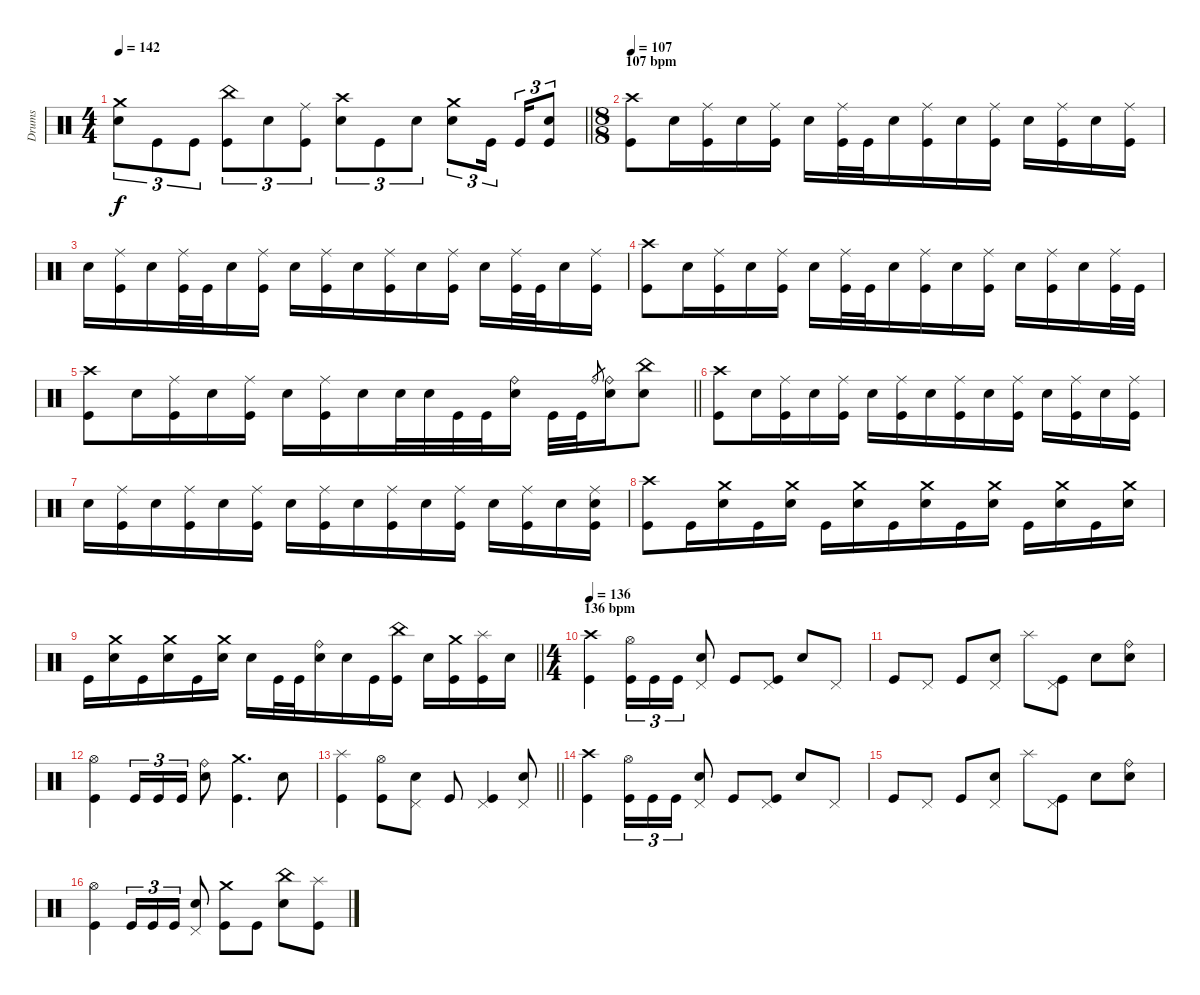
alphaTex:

\track ("Drums" "Drums") {instrument percussion}
\staff
\articulation defaults
\ts (4 4)
\tempo 142
\clef neutral
\barLineRight lightlight
\ks c
("Crash medium (hit)" "Electric Snare (hit)").8{tu (3 2) dy f} "Kick (hit)".8{tu (3 2)} "Kick (hit)".8{tu (3 2)} ("China (hit)" "Kick (hit)").8{tu (3 2)} "Electric Snare (hit)".8{tu (3 2)} ("Ride (middle)" "Kick (hit)").8{tu (3 2)} ("Crash high (hit)" "Electric Snare (hit)").8{tu (3 2)} "Kick (hit)".8{tu (3 2)} "Electric Snare (hit)".8{tu (3 2)} ("Crash medium (hit)" "Electric Snare (hit)").8{tu (3 2)} "Kick (hit)".16{tu (3 2) beam splitsecondary} "Kick (hit)".16{tu (3 2)} ("Electric Snare (hit)" "Kick (hit)").8{tu (3 2)} |
\ts (8 8)
\section ("" "107 bpm")
\tempo 107
("Crash high (hit)" "Kick (hit)").8 "Electric Snare (hit)".16 ("Ride (middle)" "Kick (hit)").16 "Electric Snare (hit)".16 ("Ride (middle)" "Kick (hit)").16 "Electric Snare (hit)".16 ("Ride (middle)" "Kick (hit)").32 "Kick (hit)".32 "Electric Snare (hit)".16 ("Ride (middle)" "Kick (hit)").16 "Electric Snare (hit)".16 ("Ride (middle)" "Kick (hit)").16 "Electric Snare (hit)".16 ("Ride (middle)" "Kick (hit)").16 "Electric Snare (hit)".16 ("Ride (middle)" "Kick (hit)").16 |
"Electric Snare (hit)".16 ("Ride (middle)" "Kick (hit)").16 "Electric Snare (hit)".16 ("Ride (middle)" "Kick (hit)").32 "Kick (hit)".32 "Electric Snare (hit)".16 ("Ride (middle)" "Kick (hit)").16 "Electric Snare (hit)".16 ("Ride (middle)" "Kick (hit)").16 "Electric Snare (hit)".16 ("Ride (middle)" "Kick (hit)").16 "Electric Snare (hit)".16 ("Ride (middle)" "Kick (hit)").16 "Electric Snare (hit)".16 ("Ride (middle)" "Kick (hit)").32 "Kick (hit)".32 "Electric Snare (hit)".16 ("Ride (middle)" "Kick (hit)").16 |
("Crash high (hit)" "Kick (hit)").8 "Electric Snare (hit)".16 ("Ride (middle)" "Kick (hit)").16 "Electric Snare (hit)".16 ("Ride (middle)" "Kick (hit)").16 "Electric Snare (hit)".16 ("Ride (middle)" "Kick (hit)").32 "Kick (hit)".32 "Electric Snare (hit)".16 ("Ride (middle)" "Kick (hit)").16 "Electric Snare (hit)".16 ("Ride (middle)" "Kick (hit)").16 "Electric Snare (hit)".16 ("Ride (middle)" "Kick (hit)").16 "Electric Snare (hit)".16 ("Ride (middle)" "Kick (hit)").32 "Kick (hit)".32 |
\barLineRight lightlight
("Crash high (hit)" "Kick (hit)").8 "Electric Snare (hit)".16 ("Ride (middle)" "Kick (hit)").16 "Electric Snare (hit)".16 ("Ride (middle)" "Kick (hit)").16 "Electric Snare (hit)".16 ("Ride (middle)" "Kick (hit)").16 "Electric Snare (hit)".16 "Electric Snare (hit)".32 "Electric Snare (hit)".32 "Kick (hit)".32 "Kick (hit)".32 ("Ride (bell)" "Electric Snare (hit)").16 "Kick (hit)".32 "Kick (hit)".32 "Ride (bell)".8{gr} ("Ride (bell)" "Electric Snare (hit)").16 ("China (hit)" "Electric Snare (hit)").8 |
("Crash high (hit)" "Kick (hit)").8 "Electric Snare (hit)".16 ("Ride (middle)" "Kick (hit)").16 "Electric Snare (hit)".16 ("Ride (middle)" "Kick (hit)").16 "Electric Snare (hit)".16 ("Ride (middle)" "Kick (hit)").16 "Electric Snare (hit)".16 ("Ride (middle)" "Kick (hit)").16 "Electric Snare (hit)".16 ("Ride (middle)" "Kick (hit)").16 "Electric Snare (hit)".16 ("Ride (middle)" "Kick (hit)").16 "Electric Snare (hit)".16 ("Ride (middle)" "Kick (hit)").16 |
"Electric Snare (hit)".16 ("Ride (middle)" "Kick (hit)").16 "Electric Snare (hit)".16 ("Ride (middle)" "Kick (hit)").16 "Electric Snare (hit)".16 ("Ride (middle)" "Kick (hit)").16 "Electric Snare (hit)".16 ("Ride (middle)" "Kick (hit)").16 "Electric Snare (hit)".16 ("Ride (middle)" "Kick (hit)").16 "Electric Snare (hit)".16 ("Ride (middle)" "Kick (hit)").16 "Electric Snare (hit)".16 ("Ride (middle)" "Kick (hit)").16 "Electric Snare (hit)".16 ("Ride (middle)" "Electric Snare (hit)" "Kick (hit)").16 |
("Crash high (hit)" "Kick (hit)").8 "Kick (hit)".16 ("Crash medium (hit)" "Electric Snare (hit)").16 "Kick (hit)".16 ("Crash medium (hit)" "Electric Snare (hit)").16 "Kick (hit)".16 ("Crash medium (hit)" "Electric Snare (hit)").16 "Kick (hit)".16 ("Crash medium (hit)" "Electric Snare (hit)").16 "Kick (hit)".16 ("Crash medium (hit)" "Electric Snare (hit)").16 "Kick (hit)".16 ("Crash medium (hit)" "Electric Snare (hit)").16 "Kick (hit)".16 ("Crash medium (hit)" "Electric Snare (hit)").16 |
\barLineRight lightlight "Kick (hit)".16
("Crash medium (hit)" "Electric Snare (hit)").16 "Kick (hit)".16 ("Crash medium (hit)" "Electric Snare (hit)").16 "Kick (hit)".16 ("Crash medium (hit)" "Electric Snare (hit)").16 "Electric Snare (hit)".16 "Kick (hit)".32 "Kick (hit)".32 ("Ride (bell)" "Electric Snare (hit)").16 "Electric Snare (hit)".16 "Kick (hit)".16 ("China (hit)" "Kick (hit)").16 "Electric Snare (hit)".16 ("Crash medium (hit)" "Kick (hit)").16 ("Splash (hit)" "Kick (hit)").16 "Electric Snare (hit)".16 |
\ts (4 4)
\section ("" "136 bpm")
\tempo 136
("Crash high (hit)" "Kick (hit)").4 ("Hi-Hat (open)" "Kick (hit)").16{tu (3 2)} "Kick (hit)".16{tu (3 2)} "Kick (hit)".16{tu (3 2)} ("Pedal Hi-Hat (hit)" "Electric Snare (hit)").8 "Kick (hit)".8 ("Pedal Hi-Hat (hit)" "Kick (hit)").8 "Electric Snare (hit)".8 "Pedal Hi-Hat (hit)".8 |
"Kick (hit)".8 "Pedal Hi-Hat (hit)".8 "Kick (hit)".8 ("Pedal Hi-Hat (hit)" "Electric Snare (hit)").8 "Splash (hit)".8 ("Pedal Hi-Hat (hit)" "Kick (hit)").8 "Electric Snare (hit)".8 ("Ride (bell)" "Electric Snare (hit)").8 |
("Hi-Hat (open)" "Kick (hit)").4 "Kick (hit)".16{tu (3 2)} "Kick (hit)".16{tu (3 2)} "Kick (hit)".16{tu (3 2)} ("Ride (bell)" "Electric Snare (hit)").8 ("Crash medium (hit)" "Kick (hit)").4{d} "Electric Snare (hit)".8 |
\barLineRight lightlight
("Splash (hit)" "Kick (hit)").4 ("Hi-Hat (open)" "Kick (hit)").8 ("Pedal Hi-Hat (hit)" "Electric Snare (hit)").8 "Kick (hit)".8 ("Pedal Hi-Hat (hit)" "Kick (hit)").4 ("Pedal Hi-Hat (hit)" "Electric Snare (hit)").8 |
("Crash high (hit)" "Kick (hit)").4 ("Hi-Hat (open)" "Kick (hit)").16{tu (3 2)} "Kick (hit)".16{tu (3 2)} "Kick (hit)".16{tu (3 2)} ("Pedal Hi-Hat (hit)" "Electric Snare (hit)").8 "Kick (hit)".8 ("Pedal Hi-Hat (hit)" "Kick (hit)").8 "Electric Snare (hit)".8 "Pedal Hi-Hat (hit)".8 |
"Kick (hit)".8 "Pedal Hi-Hat (hit)".8 "Kick (hit)".8 ("Pedal Hi-Hat (hit)" "Electric Snare (hit)").8 "Splash (hit)".8 ("Pedal Hi-Hat (hit)" "Kick (hit)").8 "Electric Snare (hit)".8 ("Ride (bell)" "Electric Snare (hit)").8 |
("Hi-Hat (open)" "Kick (hit)").4 "Kick (hit)".16{tu (3 2)} "Kick (hit)".16{tu (3 2)} "Kick (hit)".16{tu (3 2)} ("Pedal Hi-Hat (hit)" "Electric Snare (hit)").8 ("Crash medium (hit)" "Kick (hit)").8 "Kick (hit)".8 ("China (hit)" "Electric Snare (hit)").8 ("Splash (hit)" "Kick (hit)").8
